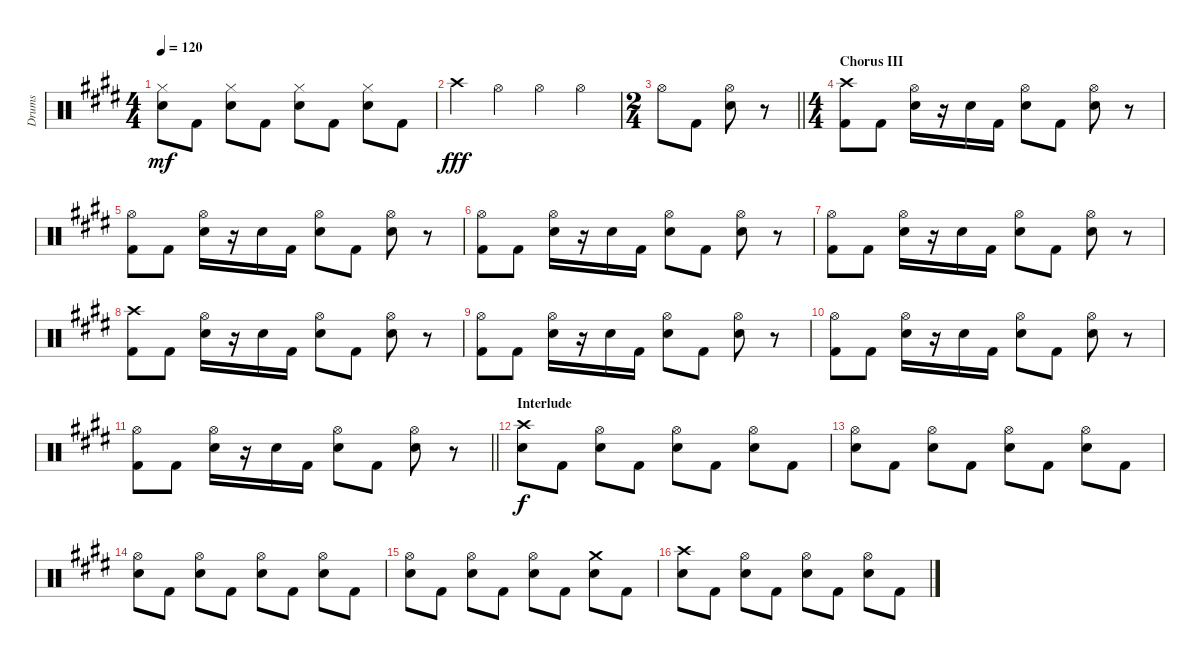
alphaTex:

\track ("Drums" "Drums") {instrument percussion}
\staff {score}
\articulation defaults
\ts (4 4)
\tempo 120
\clef neutral
\ks e
("Hi-Hat (closed)" "Snare (hit) 2").8{dy mf} "Kick (hit) 2".8 ("Hi-Hat (closed)" "Snare (hit) 2").8 "Kick (hit) 2".8 ("Hi-Hat (closed)" "Snare (hit) 2").8 "Kick (hit) 2".8 ("Hi-Hat (closed)" "Snare (hit) 2").8 "Kick (hit) 2".8 |
"Crash high (hit)".4{dy fff} "Hi-Hat (open)".4 "Hi-Hat (open)".4 "Hi-Hat (open)".4 |
\ts (2 4)
\barLineRight lightlight "Hi-Hat (open)".8 "Kick (hit) 2".8
("Hi-Hat (open)" "Snare (hit) 2").8 r.8 |
\ts (4 4)
\section ("" "Chorus III")
("Crash high (hit)" "Kick (hit) 2").8 "Kick (hit) 2".8 ("Hi-Hat (open)" "Snare (hit) 2").16 r.16 "Snare (hit) 2".16 "Kick (hit) 2".16 ("Hi-Hat (open)" "Snare (hit) 2").8 "Kick (hit) 2".8 ("Hi-Hat (open)" "Snare (hit) 2").8 r.8 |
("Hi-Hat (open)" "Kick (hit) 2").8 "Kick (hit) 2".8 ("Hi-Hat (open)" "Snare (hit) 2").16 r.16 "Snare (hit) 2".16 "Kick (hit) 2".16 ("Hi-Hat (open)" "Snare (hit) 2").8 "Kick (hit) 2".8 ("Hi-Hat (open)" "Snare (hit) 2").8 r.8 |
("Hi-Hat (open)" "Kick (hit) 2").8 "Kick (hit) 2".8 ("Hi-Hat (open)" "Snare (hit) 2").16 r.16 "Snare (hit) 2".16 "Kick (hit) 2".16 ("Hi-Hat (open)" "Snare (hit) 2").8 "Kick (hit) 2".8 ("Hi-Hat (open)" "Snare (hit) 2").8 r.8 |
("Hi-Hat (open)" "Kick (hit) 2").8 "Kick (hit) 2".8 ("Hi-Hat (open)" "Snare (hit) 2").16 r.16 "Snare (hit) 2".16 "Kick (hit) 2".16 ("Hi-Hat (open)" "Snare (hit) 2").8 "Kick (hit) 2".8 ("Hi-Hat (open)" "Snare (hit) 2").8 r.8 |
("Crash high (hit)" "Kick (hit) 2").8 "Kick (hit) 2".8 ("Hi-Hat (open)" "Snare (hit) 2").16 r.16 "Snare (hit) 2".16 "Kick (hit) 2".16 ("Hi-Hat (open)" "Snare (hit) 2").8 "Kick (hit) 2".8 ("Hi-Hat (open)" "Snare (hit) 2").8 r.8 |
("Hi-Hat (open)" "Kick (hit) 2").8 "Kick (hit) 2".8 ("Hi-Hat (open)" "Snare (hit) 2").16 r.16 "Snare (hit) 2".16 "Kick (hit) 2".16 ("Hi-Hat (open)" "Snare (hit) 2").8 "Kick (hit) 2".8 ("Hi-Hat (open)" "Snare (hit) 2").8 r.8 |
("Hi-Hat (open)" "Kick (hit) 2").8 "Kick (hit) 2".8 ("Hi-Hat (open)" "Snare (hit) 2").16 r.16 "Snare (hit) 2".16 "Kick (hit) 2".16 ("Hi-Hat (open)" "Snare (hit) 2").8 "Kick (hit) 2".8 ("Hi-Hat (open)" "Snare (hit) 2").8 r.8 |
\barLineRight lightlight
("Hi-Hat (open)" "Kick (hit) 2").8 "Kick (hit) 2".8 ("Hi-Hat (open)" "Snare (hit) 2").16 r.16 "Snare (hit) 2".16 "Kick (hit) 2".16 ("Hi-Hat (open)" "Snare (hit) 2").8 "Kick (hit) 2".8 ("Hi-Hat (open)" "Snare (hit) 2").8 r.8 |
\section ("" "Interlude")
("Crash high (hit)" "Snare (hit) 2").8{dy f} "Kick (hit) 2".8 ("Hi-Hat (open)" "Snare (hit) 2").8 "Kick (hit) 2".8 ("Hi-Hat (open)" "Snare (hit) 2").8 "Kick (hit) 2".8 ("Hi-Hat (open)" "Snare (hit) 2").8 "Kick (hit) 2".8 |
("Hi-Hat (open)" "Snare (hit) 2").8 "Kick (hit) 2".8 ("Hi-Hat (open)" "Snare (hit) 2").8 "Kick (hit) 2".8 ("Hi-Hat (open)" "Snare (hit) 2").8 "Kick (hit) 2".8 ("Hi-Hat (open)" "Snare (hit) 2").8 "Kick (hit) 2".8 |
("Hi-Hat (open)" "Snare (hit) 2").8 "Kick (hit) 2".8 ("Hi-Hat (open)" "Snare (hit) 2").8 "Kick (hit) 2".8 ("Hi-Hat (open)" "Snare (hit) 2").8 "Kick (hit) 2".8 ("Hi-Hat (open)" "Snare (hit) 2").8 "Kick (hit) 2".8 |
("Hi-Hat (open)" "Snare (hit) 2").8 "Kick (hit) 2".8 ("Hi-Hat (open)" "Snare (hit) 2").8 "Kick (hit) 2".8 ("Hi-Hat (open)" "Snare (hit) 2").8 "Kick (hit) 2".8 ("Crash medium (hit)" "Snare (hit) 2").8 "Kick (hit) 2".8 |
("Crash high (hit)" "Snare (hit) 2").8 "Kick (hit) 2".8 ("Hi-Hat (open)" "Snare (hit) 2").8 "Kick (hit) 2".8 ("Hi-Hat (open)" "Snare (hit) 2").8 "Kick (hit) 2".8 ("Hi-Hat (open)" "Snare (hit) 2").8 "Kick (hit) 2".8
